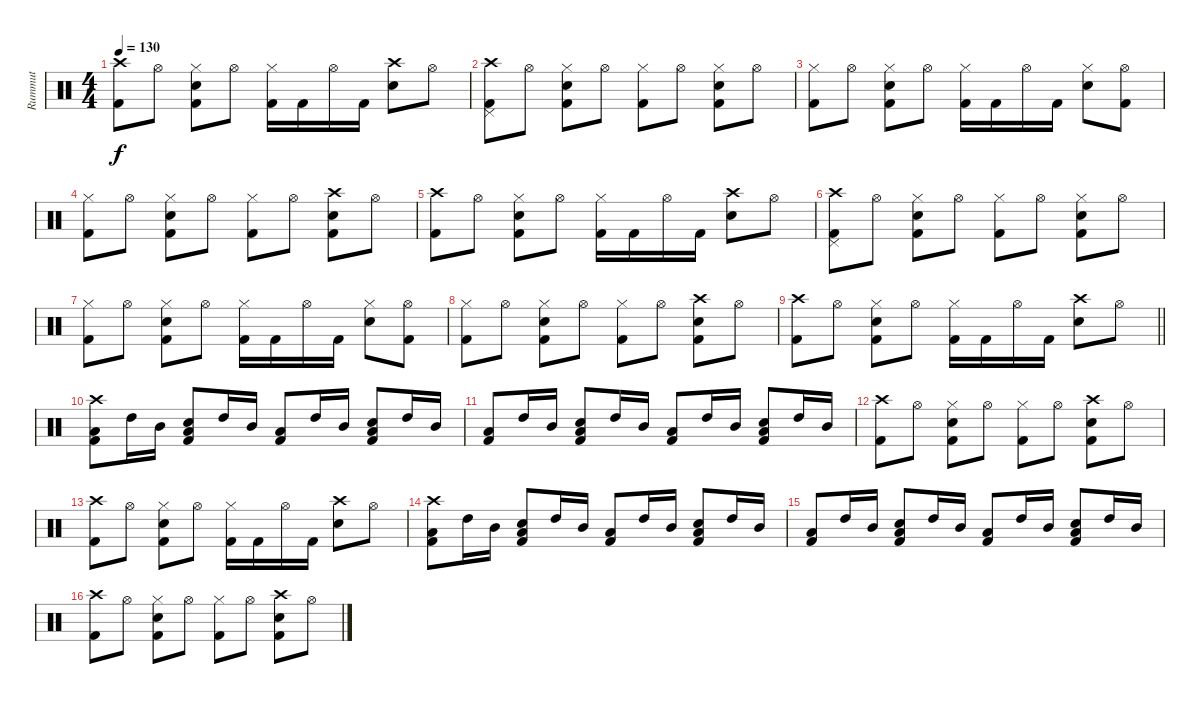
\track ("Rummut" "Rummut") {instrument percussion}
\staff {score}
\articulation defaults
\ts (4 4)
\tempo 130
\clef neutral
\ks c
("Crash high (hit)" "Kick (hit) 2").8{dy f} "Hi-Hat (open)".8 ("Hi-Hat (closed)" "Snare (hit) 2" "Kick (hit) 2").8 "Hi-Hat (open)".8 ("Hi-Hat (closed)" "Kick (hit) 2").16 "Kick (hit) 2".16 "Hi-Hat (open)".16 "Kick (hit) 2".16 ("Crash high (hit)" "Snare (hit) 2").8 "Hi-Hat (open)".8 |
("Crash high (hit)" "Pedal Hi-Hat (hit)" "Kick (hit) 2").8 "Hi-Hat (open)".8 ("Hi-Hat (closed)" "Snare (hit) 2" "Kick (hit) 2").8 "Hi-Hat (open)".8 ("Hi-Hat (closed)" "Kick (hit) 2").8 "Hi-Hat (open)".8 ("Hi-Hat (closed)" "Snare (hit) 2" "Kick (hit) 2").8 "Hi-Hat (open)".8 |
("Hi-Hat (closed)" "Kick (hit) 2").8 "Hi-Hat (open)".8 ("Hi-Hat (closed)" "Snare (hit) 2" "Kick (hit) 2").8 "Hi-Hat (open)".8 ("Hi-Hat (closed)" "Kick (hit) 2").16 "Kick (hit) 2".16 "Hi-Hat (open)".16 "Kick (hit) 2".16 ("Hi-Hat (closed)" "Snare (hit) 2").8 ("Hi-Hat (open)" "Kick (hit) 2").8 |
("Hi-Hat (closed)" "Kick (hit) 2").8 "Hi-Hat (open)".8 ("Hi-Hat (closed)" "Snare (hit) 2" "Kick (hit) 2").8 "Hi-Hat (open)".8 ("Hi-Hat (closed)" "Kick (hit) 2").8 "Hi-Hat (open)".8 ("Crash high (hit)" "Snare (hit) 2" "Kick (hit) 2").8 "Hi-Hat (open)".8 |
("Crash high (hit)" "Kick (hit) 2").8 "Hi-Hat (open)".8 ("Hi-Hat (closed)" "Snare (hit) 2" "Kick (hit) 2").8 "Hi-Hat (open)".8 ("Hi-Hat (closed)" "Kick (hit) 2").16 "Kick (hit) 2".16 "Hi-Hat (open)".16 "Kick (hit) 2".16 ("Crash high (hit)" "Snare (hit) 2").8 "Hi-Hat (open)".8 |
("Crash high (hit)" "Pedal Hi-Hat (hit)" "Kick (hit) 2").8 "Hi-Hat (open)".8 ("Hi-Hat (closed)" "Snare (hit) 2" "Kick (hit) 2").8 "Hi-Hat (open)".8 ("Hi-Hat (closed)" "Kick (hit) 2").8 "Hi-Hat (open)".8 ("Hi-Hat (closed)" "Snare (hit) 2" "Kick (hit) 2").8 "Hi-Hat (open)".8 |
("Hi-Hat (closed)" "Kick (hit) 2").8 "Hi-Hat (open)".8 ("Hi-Hat (closed)" "Snare (hit) 2" "Kick (hit) 2").8 "Hi-Hat (open)".8 ("Hi-Hat (closed)" "Kick (hit) 2").16 "Kick (hit) 2".16 "Hi-Hat (open)".16 "Kick (hit) 2".16 ("Hi-Hat (closed)" "Snare (hit) 2").8 ("Hi-Hat (open)" "Kick (hit) 2").8 |
("Hi-Hat (closed)" "Kick (hit) 2").8 "Hi-Hat (open)".8 ("Hi-Hat (closed)" "Snare (hit) 2" "Kick (hit) 2").8 "Hi-Hat (open)".8 ("Hi-Hat (closed)" "Kick (hit) 2").8 "Hi-Hat (open)".8 ("Crash high (hit)" "Snare (hit) 2" "Kick (hit) 2").8 "Hi-Hat (open)".8 |
\barLineRight lightlight
("Crash high (hit)" "Kick (hit) 2").8 "Hi-Hat (open)".8 ("Hi-Hat (closed)" "Snare (hit) 2" "Kick (hit) 2").8 "Hi-Hat (open)".8 ("Hi-Hat (closed)" "Kick (hit) 2").16 "Kick (hit) 2".16 "Hi-Hat (open)".16 "Kick (hit) 2".16 ("Crash high (hit)" "Snare (hit) 2").8 "Hi-Hat (open)".8 |
("Crash high (hit)" "Low Tom (hit)" "Kick (hit) 2").8 "High Tom (hit)".16 "Mid Tom (hit)".16 ("Snare (hit) 2" "Low Tom (hit)" "Kick (hit) 2").8 "High Tom (hit)".16 "Mid Tom (hit)".16 ("Low Tom (hit)" "Kick (hit) 2").8 "High Tom (hit)".16 "Mid Tom (hit)".16 ("Snare (hit) 2" "Low Tom (hit)" "Kick (hit) 2").8 "High Tom (hit)".16 "Mid Tom (hit)".16 |
("Low Tom (hit)" "Kick (hit) 2").8 "High Tom (hit)".16 "Mid Tom (hit)".16 ("Snare (hit) 2" "Low Tom (hit)" "Kick (hit) 2").8 "High Tom (hit)".16 "Mid Tom (hit)".16 ("Low Tom (hit)" "Kick (hit) 2").8 "High Tom (hit)".16 "Mid Tom (hit)".16 ("Snare (hit) 2" "Low Tom (hit)" "Kick (hit) 2").8 "High Tom (hit)".16 "Mid Tom (hit)".16 |
("Crash high (hit)" "Kick (hit) 2").8 "Hi-Hat (open)".8 ("Hi-Hat (closed)" "Snare (hit) 2" "Kick (hit) 2").8 "Hi-Hat (open)".8 ("Hi-Hat (closed)" "Kick (hit) 2").8 "Hi-Hat (open)".8 ("Crash high (hit)" "Snare (hit) 2" "Kick (hit) 2").8 "Hi-Hat (open)".8 |
("Crash high (hit)" "Kick (hit) 2").8 "Hi-Hat (open)".8 ("Hi-Hat (closed)" "Snare (hit) 2" "Kick (hit) 2").8 "Hi-Hat (open)".8 ("Hi-Hat (closed)" "Kick (hit) 2").16 "Kick (hit) 2".16 "Hi-Hat (open)".16 "Kick (hit) 2".16 ("Crash high (hit)" "Snare (hit) 2").8 "Hi-Hat (open)".8 |
("Crash high (hit)" "Low Tom (hit)" "Kick (hit) 2").8 "High Tom (hit)".16 "Mid Tom (hit)".16 ("Snare (hit) 2" "Low Tom (hit)" "Kick (hit) 2").8 "High Tom (hit)".16 "Mid Tom (hit)".16 ("Low Tom (hit)" "Kick (hit) 2").8 "High Tom (hit)".16 "Mid Tom (hit)".16 ("Snare (hit) 2" "Low Tom (hit)" "Kick (hit) 2").8 "High Tom (hit)".16 "Mid Tom (hit)".16 |
("Low Tom (hit)" "Kick (hit) 2").8 "High Tom (hit)".16 "Mid Tom (hit)".16 ("Snare (hit) 2" "Low Tom (hit)" "Kick (hit) 2").8 "High Tom (hit)".16 "Mid Tom (hit)".16 ("Low Tom (hit)" "Kick (hit) 2").8 "High Tom (hit)".16 "Mid Tom (hit)".16 ("Snare (hit) 2" "Low Tom (hit)" "Kick (hit) 2").8 "High Tom (hit)".16 "Mid Tom (hit)".16 |
("Crash high (hit)" "Kick (hit) 2").8 "Hi-Hat (open)".8 ("Hi-Hat (closed)" "Snare (hit) 2" "Kick (hit) 2").8 "Hi-Hat (open)".8 ("Hi-Hat (closed)" "Kick (hit) 2").8 "Hi-Hat (open)".8 ("Crash high (hit)" "Snare (hit) 2" "Kick (hit) 2").8 "Hi-Hat (open)".8
